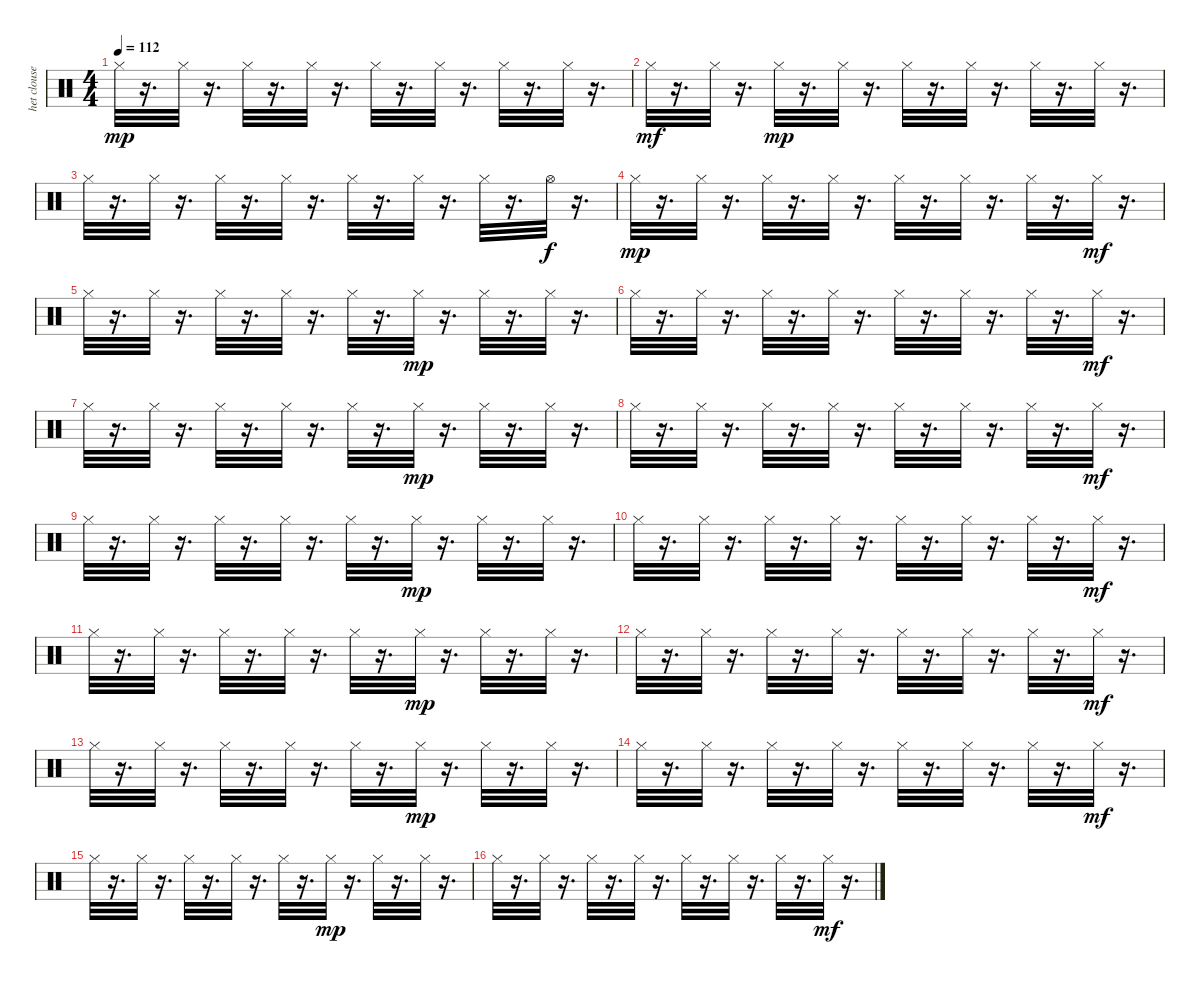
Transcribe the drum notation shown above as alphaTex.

\track ("het cloused" "het clouse") {instrument percussion}
\staff {score}
\articulation defaults
\ts (4 4)
\tempo 112
\clef neutral
\ks c "Hi-Hat (closed)".32{dy mp}
r.16{d} "Hi-Hat (closed)".32 r.16{d} "Hi-Hat (closed)".32 r.16{d} "Hi-Hat (closed)".32 r.16{d} "Hi-Hat (closed)".32 r.16{d} "Hi-Hat (closed)".32 r.16{d} "Hi-Hat (closed)".32 r.16{d} "Hi-Hat (closed)".32 r.16{d} |
"Hi-Hat (closed)".32{dy mf} r.16{d} "Hi-Hat (closed)".32 r.16{d} "Hi-Hat (closed)".32{dy mp} r.16{d} "Hi-Hat (closed)".32 r.16{d} "Hi-Hat (closed)".32 r.16{d} "Hi-Hat (closed)".32 r.16{d} "Hi-Hat (closed)".32 r.16{d} "Hi-Hat (closed)".32 r.16{d} |
"Hi-Hat (closed)".32 r.16{d} "Hi-Hat (closed)".32 r.16{d} "Hi-Hat (closed)".32 r.16{d} "Hi-Hat (closed)".32 r.16{d} "Hi-Hat (closed)".32 r.16{d} "Hi-Hat (closed)".32 r.16{d} "Hi-Hat (closed)".32 r.16{d} "Hi-Hat (open)".32{dy f} r.16{d} |
"Hi-Hat (closed)".32{dy mp} r.16{d} "Hi-Hat (closed)".32 r.16{d} "Hi-Hat (closed)".32 r.16{d} "Hi-Hat (closed)".32 r.16{d} "Hi-Hat (closed)".32 r.16{d} "Hi-Hat (closed)".32 r.16{d} "Hi-Hat (closed)".32 r.16{d} "Hi-Hat (closed)".32{dy mf} r.16{d} |
"Hi-Hat (closed)".32 r.16{d} "Hi-Hat (closed)".32 r.16{d} "Hi-Hat (closed)".32 r.16{d} "Hi-Hat (closed)".32 r.16{d} "Hi-Hat (closed)".32 r.16{d} "Hi-Hat (closed)".32{dy mp} r.16{d} "Hi-Hat (closed)".32 r.16{d} "Hi-Hat (closed)".32 r.16{d} |
"Hi-Hat (closed)".32 r.16{d} "Hi-Hat (closed)".32 r.16{d} "Hi-Hat (closed)".32 r.16{d} "Hi-Hat (closed)".32 r.16{d} "Hi-Hat (closed)".32 r.16{d} "Hi-Hat (closed)".32 r.16{d} "Hi-Hat (closed)".32 r.16{d} "Hi-Hat (closed)".32{dy mf} r.16{d} |
"Hi-Hat (closed)".32 r.16{d} "Hi-Hat (closed)".32 r.16{d} "Hi-Hat (closed)".32 r.16{d} "Hi-Hat (closed)".32 r.16{d} "Hi-Hat (closed)".32 r.16{d} "Hi-Hat (closed)".32{dy mp} r.16{d} "Hi-Hat (closed)".32 r.16{d} "Hi-Hat (closed)".32 r.16{d} |
"Hi-Hat (closed)".32 r.16{d} "Hi-Hat (closed)".32 r.16{d} "Hi-Hat (closed)".32 r.16{d} "Hi-Hat (closed)".32 r.16{d} "Hi-Hat (closed)".32 r.16{d} "Hi-Hat (closed)".32 r.16{d} "Hi-Hat (closed)".32 r.16{d} "Hi-Hat (closed)".32{dy mf} r.16{d} |
"Hi-Hat (closed)".32 r.16{d} "Hi-Hat (closed)".32 r.16{d} "Hi-Hat (closed)".32 r.16{d} "Hi-Hat (closed)".32 r.16{d} "Hi-Hat (closed)".32 r.16{d} "Hi-Hat (closed)".32{dy mp} r.16{d} "Hi-Hat (closed)".32 r.16{d} "Hi-Hat (closed)".32 r.16{d} |
"Hi-Hat (closed)".32 r.16{d} "Hi-Hat (closed)".32 r.16{d} "Hi-Hat (closed)".32 r.16{d} "Hi-Hat (closed)".32 r.16{d} "Hi-Hat (closed)".32 r.16{d} "Hi-Hat (closed)".32 r.16{d} "Hi-Hat (closed)".32 r.16{d} "Hi-Hat (closed)".32{dy mf} r.16{d} |
"Hi-Hat (closed)".32 r.16{d} "Hi-Hat (closed)".32 r.16{d} "Hi-Hat (closed)".32 r.16{d} "Hi-Hat (closed)".32 r.16{d} "Hi-Hat (closed)".32 r.16{d} "Hi-Hat (closed)".32{dy mp} r.16{d} "Hi-Hat (closed)".32 r.16{d} "Hi-Hat (closed)".32 r.16{d} |
"Hi-Hat (closed)".32 r.16{d} "Hi-Hat (closed)".32 r.16{d} "Hi-Hat (closed)".32 r.16{d} "Hi-Hat (closed)".32 r.16{d} "Hi-Hat (closed)".32 r.16{d} "Hi-Hat (closed)".32 r.16{d} "Hi-Hat (closed)".32 r.16{d} "Hi-Hat (closed)".32{dy mf} r.16{d} |
"Hi-Hat (closed)".32 r.16{d} "Hi-Hat (closed)".32 r.16{d} "Hi-Hat (closed)".32 r.16{d} "Hi-Hat (closed)".32 r.16{d} "Hi-Hat (closed)".32 r.16{d} "Hi-Hat (closed)".32{dy mp} r.16{d} "Hi-Hat (closed)".32 r.16{d} "Hi-Hat (closed)".32 r.16{d} |
"Hi-Hat (closed)".32 r.16{d} "Hi-Hat (closed)".32 r.16{d} "Hi-Hat (closed)".32 r.16{d} "Hi-Hat (closed)".32 r.16{d} "Hi-Hat (closed)".32 r.16{d} "Hi-Hat (closed)".32 r.16{d} "Hi-Hat (closed)".32 r.16{d} "Hi-Hat (closed)".32{dy mf} r.16{d} |
"Hi-Hat (closed)".32 r.16{d} "Hi-Hat (closed)".32 r.16{d} "Hi-Hat (closed)".32 r.16{d} "Hi-Hat (closed)".32 r.16{d} "Hi-Hat (closed)".32 r.16{d} "Hi-Hat (closed)".32{dy mp} r.16{d} "Hi-Hat (closed)".32 r.16{d} "Hi-Hat (closed)".32 r.16{d} |
"Hi-Hat (closed)".32 r.16{d} "Hi-Hat (closed)".32 r.16{d} "Hi-Hat (closed)".32 r.16{d} "Hi-Hat (closed)".32 r.16{d} "Hi-Hat (closed)".32 r.16{d} "Hi-Hat (closed)".32 r.16{d} "Hi-Hat (closed)".32 r.16{d} "Hi-Hat (closed)".32{dy mf} r.16{d}
